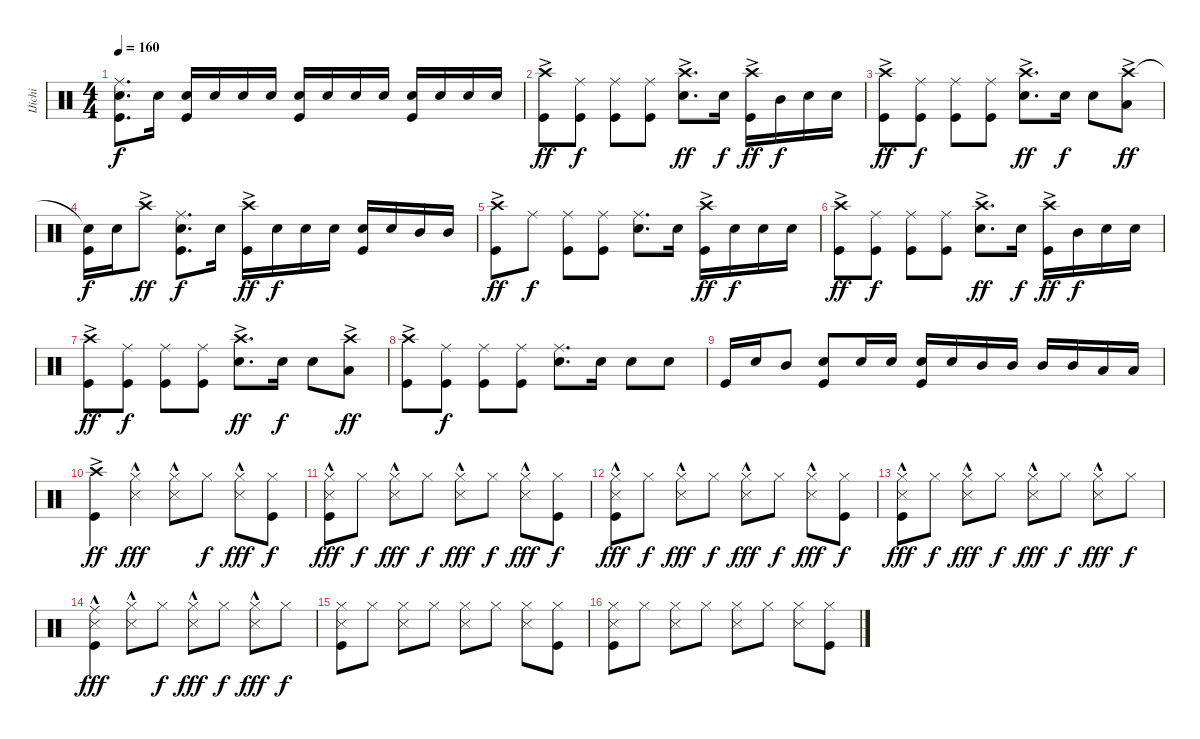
\track ("IJichi" "IJichi") {instrument percussion}
\staff {score}
\articulation defaults
\ts (4 4)
\tempo 160
\clef neutral
\ks c
("Ride (middle)" "Snare (hit) 2" "Kick (hit)").8{d dy f} "Snare (hit) 2".16 ("Snare (hit) 2" "Kick (hit)").16 "Snare (hit) 2".16 "Snare (hit) 2".16 "Snare (hit) 2".16 ("Snare (hit) 2" "Kick (hit)").16 "Snare (hit) 2".16 "Snare (hit) 2".16 "Snare (hit) 2".16 ("Snare (hit) 2" "Kick (hit)").16 "Snare (hit) 2".16 "Snare (hit) 2".16 "Snare (hit) 2".16 |
("Crash high (hit)"{ac} "Kick (hit)").8{dy ff} ("Ride (middle)" "Kick (hit)").8{dy f} ("Ride (middle)" "Kick (hit)").8 ("Ride (middle)" "Kick (hit)").8 ("Crash high (hit)"{ac} "Snare (hit) 2").8{d dy ff} "Snare (hit) 2".16{dy f} ("Crash high (hit)"{ac} "Kick (hit)").16{dy ff} "Mid Tom (hit)".16{dy f} "Snare (hit) 2".16 "Snare (hit) 2".16 |
("Crash high (hit)"{ac} "Kick (hit)").8{dy ff} ("Ride (middle)" "Kick (hit)").8{dy f} ("Ride (middle)" "Kick (hit)").8 ("Ride (middle)" "Kick (hit)").8 ("Crash high (hit)"{ac} "Snare (hit) 2").8{d dy ff} "Snare (hit) 2".16{dy f} "Snare (hit) 2".8 ("Crash high (hit)"{ac} "Low Tom (hit)").8{dy ff} |
("Snare (hit)"{t} "Kick (hit)").16{dy f} "Snare (hit) 2".16 "Crash high (hit)"{ac}.8{dy ff} ("Ride (middle)" "Snare (hit) 2" "Kick (hit)").8{d dy f} "Snare (hit) 2".16 ("Crash high (hit)"{ac} "Kick (hit)").16{dy ff} "Snare (hit) 2".16{dy f} "Snare (hit) 2".16 "Snare (hit) 2".16 ("Snare (hit) 2" "Kick (hit)").16 "Snare (hit) 2".16 "Mid Tom (hit)".16 "Mid Tom (hit)".16 |
("Crash high (hit)"{ac} "Kick (hit)").8{dy ff} "Ride (middle)".8{dy f} ("Ride (middle)" "Kick (hit)").8 ("Ride (middle)" "Kick (hit)").8 ("Ride (middle)" "Snare (hit) 2").8{d} "Snare (hit) 2".16 ("Crash high (hit)"{ac} "Kick (hit)").16{dy ff} "Snare (hit) 2".16{dy f} "Snare (hit) 2".16 "Snare (hit) 2".16 |
("Crash high (hit)"{ac} "Kick (hit)").8{dy ff} ("Ride (middle)" "Kick (hit)").8{dy f} ("Ride (middle)" "Kick (hit)").8 ("Ride (middle)" "Kick (hit)").8 ("Crash high (hit)"{ac} "Snare (hit) 2").8{d dy ff} "Snare (hit) 2".16{dy f} ("Crash high (hit)"{ac} "Kick (hit)").16{dy ff} "Mid Tom (hit)".16{dy f} "Snare (hit) 2".16 "Snare (hit) 2".16 |
("Crash high (hit)"{ac} "Kick (hit)").8{dy ff} ("Ride (middle)" "Kick (hit)").8{dy f} ("Ride (middle)" "Kick (hit)").8 ("Ride (middle)" "Kick (hit)").8 ("Crash high (hit)"{ac} "Snare (hit) 2").8{d dy ff} "Snare (hit) 2".16{dy f} "Snare (hit) 2".8 ("Crash high (hit)"{ac} "Low Tom (hit)").8{dy ff} |
("Crash high (hit)"{ac} "Kick (hit)").8 ("Ride (middle)" "Kick (hit)").8{dy f} ("Ride (middle)" "Kick (hit)").8 ("Ride (middle)" "Kick (hit)").8 ("Ride (middle)" "Snare (hit) 2").8{d} "Snare (hit) 2".16 "Snare (hit) 2".8 "Snare (hit) 2".8 |
"Kick (hit)".16 "Snare (hit) 2".16 "Mid Tom (hit)".8 ("Snare (hit) 2" "Kick (hit)").8 "Snare (hit) 2".16 "Snare (hit) 2".16 ("Snare (hit) 2" "Kick (hit)").16 "Snare (hit) 2".16 "Mid Tom (hit)".16 "Mid Tom (hit)".16 "Mid Tom (hit)".16 "Mid Tom (hit)".16 "Low Tom (hit)".16 "Low Tom (hit)".16 |
("Crash high (hit)"{ac} "Kick (hit)").4{dy ff} ("Hi-Hat (closed)" "Snare (side stick) 3"{hac}).4{dy fff} ("Hi-Hat (closed)" "Snare (side stick) 3"{hac}).8 "Hi-Hat (closed)".8{dy f} ("Hi-Hat (closed)" "Snare (side stick) 3"{hac}).8{dy fff} ("Hi-Hat (closed)" "Kick (hit)").8{dy f} |
("Hi-Hat (closed)" "Snare (side stick) 3"{hac} "Kick (hit)").8{dy fff} "Hi-Hat (closed)".8{dy f} ("Hi-Hat (closed)" "Snare (side stick) 3"{hac}).8{dy fff} "Hi-Hat (closed)".8{dy f} ("Hi-Hat (closed)" "Snare (side stick) 3"{hac}).8{dy fff} "Hi-Hat (closed)".8{dy f} ("Hi-Hat (closed)" "Snare (side stick) 3"{hac}).8{dy fff} ("Hi-Hat (closed)" "Kick (hit)").8{dy f} |
("Hi-Hat (closed)" "Snare (side stick) 3"{hac} "Kick (hit)").8{dy fff} "Hi-Hat (closed)".8{dy f} ("Hi-Hat (closed)" "Snare (side stick) 3"{hac}).8{dy fff} "Hi-Hat (closed)".8{dy f} ("Hi-Hat (closed)" "Snare (side stick) 3"{hac}).8{dy fff} "Hi-Hat (closed)".8{dy f} ("Hi-Hat (closed)" "Snare (side stick) 3"{hac}).8{dy fff} ("Hi-Hat (closed)" "Kick (hit)").8{dy f} |
("Hi-Hat (closed)" "Snare (side stick) 3"{hac} "Kick (hit)").8{dy fff} "Hi-Hat (closed)".8{dy f} ("Hi-Hat (closed)" "Snare (side stick) 3"{hac}).8{dy fff} "Hi-Hat (closed)".8{dy f} ("Hi-Hat (closed)" "Snare (side stick) 3"{hac}).8{dy fff} "Hi-Hat (closed)".8{dy f} ("Hi-Hat (closed)" "Snare (side stick) 3"{hac}).8{dy fff} "Hi-Hat (closed)".8{dy f} |
("Ride (middle)" "Snare (side stick) 3"{hac} "Kick (hit)").4{dy fff} ("Hi-Hat (closed)" "Snare (side stick) 3"{hac}).8 "Hi-Hat (closed)".8{dy f} ("Hi-Hat (closed)" "Snare (side stick) 3"{hac}).8{dy fff} "Hi-Hat (closed)".8{dy f} ("Hi-Hat (closed)" "Snare (side stick) 3"{hac}).8{dy fff} "Hi-Hat (closed)".8{dy f} |
("Hi-Hat (closed)" "Snare (side stick) 3" "Kick (hit)").8 "Hi-Hat (closed)".8 ("Hi-Hat (closed)" "Snare (side stick) 3").8 "Hi-Hat (closed)".8 ("Hi-Hat (closed)" "Snare (side stick) 3").8 "Hi-Hat (closed)".8 ("Hi-Hat (closed)" "Snare (side stick) 3").8 ("Hi-Hat (closed)" "Kick (hit)").8 |
("Hi-Hat (closed)" "Snare (side stick) 3" "Kick (hit)").8 "Hi-Hat (closed)".8 ("Hi-Hat (closed)" "Snare (side stick) 3").8 "Hi-Hat (closed)".8 ("Hi-Hat (closed)" "Snare (side stick) 3").8 "Hi-Hat (closed)".8 ("Hi-Hat (closed)" "Snare (side stick) 3").8 ("Hi-Hat (closed)" "Kick (hit)").8
